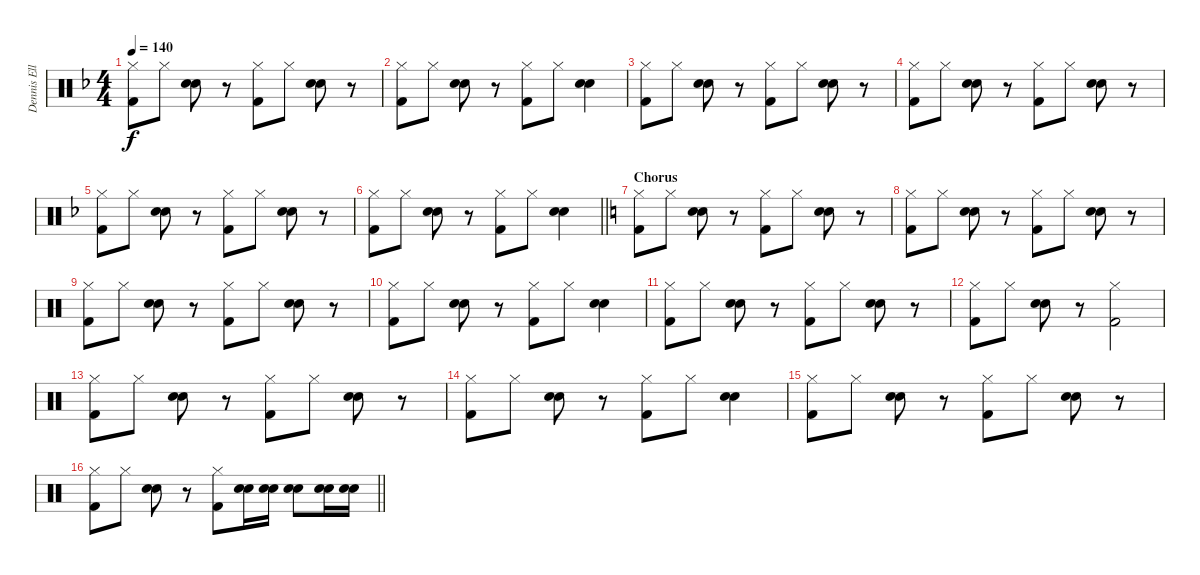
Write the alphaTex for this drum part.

\track ("Dennis Elliott (Drums)" "Dennis Ell") {instrument percussion}
\staff {score}
\articulation defaults
\ts (4 4)
\tempo 140
\clef neutral
\ks f
("Hi-Hat (closed)" "Kick (hit) 2").8{dy f} "Hi-Hat (closed)".8 ("Electric Snare (hit)" "Snare (hit) 2").8 r.8 ("Hi-Hat (closed)" "Kick (hit) 2").8 "Hi-Hat (closed)".8 ("Electric Snare (hit)" "Snare (hit) 2").8 r.8 |
("Hi-Hat (closed)" "Kick (hit) 2").8 "Hi-Hat (closed)".8 ("Electric Snare (hit)" "Snare (hit) 2").8 r.8 ("Hi-Hat (closed)" "Kick (hit) 2").8 "Hi-Hat (closed)".8 ("Electric Snare (hit)" "Snare (hit) 2").4 |
("Hi-Hat (closed)" "Kick (hit) 2").8 "Hi-Hat (closed)".8 ("Electric Snare (hit)" "Snare (hit) 2").8 r.8 ("Hi-Hat (closed)" "Kick (hit) 2").8 "Hi-Hat (closed)".8 ("Electric Snare (hit)" "Snare (hit) 2").8 r.8 |
("Hi-Hat (closed)" "Kick (hit) 2").8 "Hi-Hat (closed)".8 ("Electric Snare (hit)" "Snare (hit) 2").8 r.8 ("Hi-Hat (closed)" "Kick (hit) 2").8 "Hi-Hat (closed)".8 ("Electric Snare (hit)" "Snare (hit) 2").8 r.8 |
("Hi-Hat (closed)" "Kick (hit) 2").8 "Hi-Hat (closed)".8 ("Electric Snare (hit)" "Snare (hit) 2").8 r.8 ("Hi-Hat (closed)" "Kick (hit) 2").8 "Hi-Hat (closed)".8 ("Electric Snare (hit)" "Snare (hit) 2").8 r.8 |
\barLineRight lightlight
("Hi-Hat (closed)" "Kick (hit) 2").8 "Hi-Hat (closed)".8 ("Electric Snare (hit)" "Snare (hit) 2").8 r.8 ("Hi-Hat (closed)" "Kick (hit) 2").8 "Hi-Hat (closed)".8 ("Electric Snare (hit)" "Snare (hit) 2").4 |
\section ("" "Chorus")
\ks c
("Hi-Hat (closed)" "Kick (hit) 2").8 "Hi-Hat (closed)".8 ("Electric Snare (hit)" "Snare (hit) 2").8 r.8 ("Hi-Hat (closed)" "Kick (hit) 2").8 "Hi-Hat (closed)".8 ("Electric Snare (hit)" "Snare (hit) 2").8 r.8 |
("Hi-Hat (closed)" "Kick (hit) 2").8 "Hi-Hat (closed)".8 ("Electric Snare (hit)" "Snare (hit) 2").8 r.8 ("Hi-Hat (closed)" "Kick (hit) 2").8 "Hi-Hat (closed)".8 ("Electric Snare (hit)" "Snare (hit) 2").8 r.8 |
("Hi-Hat (closed)" "Kick (hit) 2").8 "Hi-Hat (closed)".8 ("Electric Snare (hit)" "Snare (hit) 2").8 r.8 ("Hi-Hat (closed)" "Kick (hit) 2").8 "Hi-Hat (closed)".8 ("Electric Snare (hit)" "Snare (hit) 2").8 r.8 |
("Hi-Hat (closed)" "Kick (hit) 2").8 "Hi-Hat (closed)".8 ("Electric Snare (hit)" "Snare (hit) 2").8 r.8 ("Hi-Hat (closed)" "Kick (hit) 2").8 "Hi-Hat (closed)".8 ("Electric Snare (hit)" "Snare (hit) 2").4 |
("Hi-Hat (closed)" "Kick (hit) 2").8 "Hi-Hat (closed)".8 ("Electric Snare (hit)" "Snare (hit) 2").8 r.8 ("Hi-Hat (closed)" "Kick (hit) 2").8 "Hi-Hat (closed)".8 ("Electric Snare (hit)" "Snare (hit) 2").8 r.8 |
("Hi-Hat (closed)" "Kick (hit) 2").8 "Hi-Hat (closed)".8 ("Electric Snare (hit)" "Snare (hit) 2").8 r.8 ("Hi-Hat (closed)" "Kick (hit) 2").2 |
("Hi-Hat (closed)" "Kick (hit) 2").8 "Hi-Hat (closed)".8 ("Electric Snare (hit)" "Snare (hit) 2").8 r.8 ("Hi-Hat (closed)" "Kick (hit) 2").8 "Hi-Hat (closed)".8 ("Electric Snare (hit)" "Snare (hit) 2").8 r.8 |
("Hi-Hat (closed)" "Kick (hit) 2").8 "Hi-Hat (closed)".8 ("Electric Snare (hit)" "Snare (hit) 2").8 r.8 ("Hi-Hat (closed)" "Kick (hit) 2").8 "Hi-Hat (closed)".8 ("Electric Snare (hit)" "Snare (hit) 2").4 |
("Hi-Hat (closed)" "Kick (hit) 2").8 "Hi-Hat (closed)".8 ("Electric Snare (hit)" "Snare (hit) 2").8 r.8 ("Hi-Hat (closed)" "Kick (hit) 2").8 "Hi-Hat (closed)".8 ("Electric Snare (hit)" "Snare (hit) 2").8 r.8 |
\barLineRight lightlight
("Hi-Hat (closed)" "Kick (hit) 2").8 "Hi-Hat (closed)".8 ("Electric Snare (hit)" "Snare (hit) 2").8 r.8 ("Hi-Hat (closed)" "Kick (hit) 2").8 ("Electric Snare (hit)" "Snare (hit) 2").16 ("Electric Snare (hit)" "Snare (hit) 2").16 ("Electric Snare (hit)" "Snare (hit) 2").8 ("Electric Snare (hit)" "Snare (hit) 2").16 ("Electric Snare (hit)" "Snare (hit) 2").16
